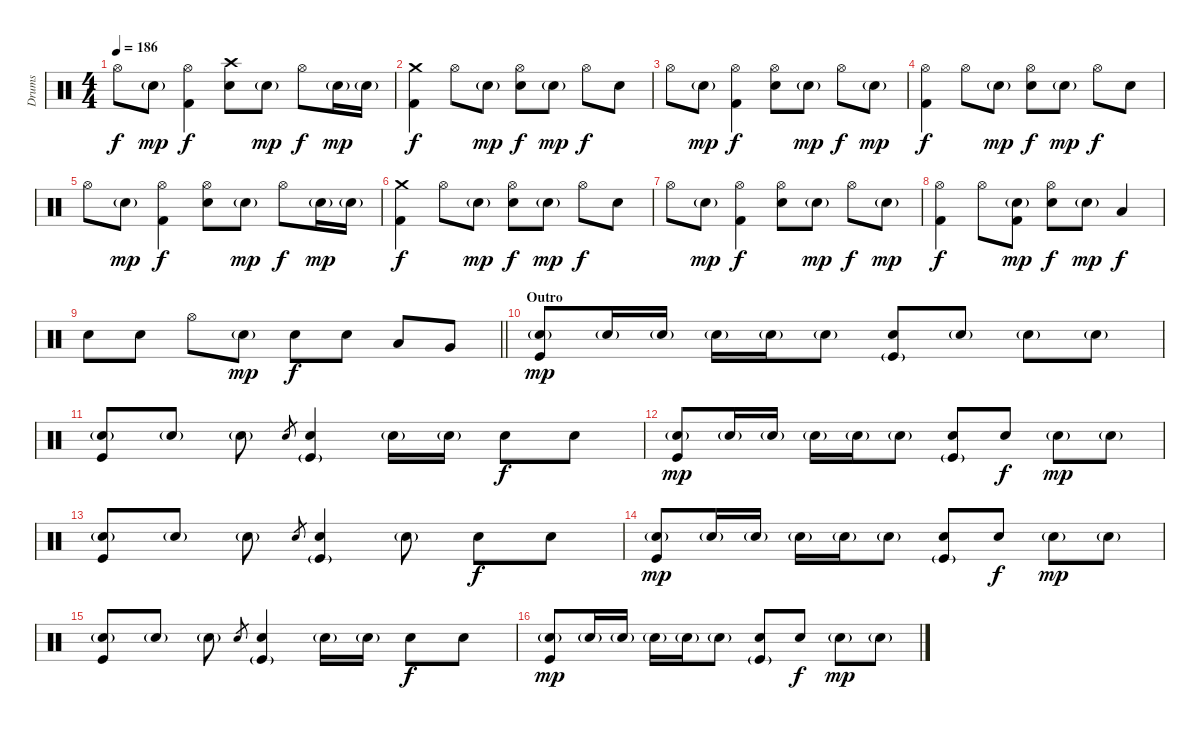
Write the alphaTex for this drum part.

\track ("Drums" "Drums") {instrument percussion}
\staff {score}
\articulation defaults
\ts (4 4)
\tempo 186
\clef neutral
\ks c "Hi-Hat (open)".8{dy f} "Electric Snare (hit)"{g}.8{dy mp}
("Hi-Hat (open)" "Kick (hit) 2").4{dy f} ("Crash high (hit)" "Electric Snare (hit)").8 "Electric Snare (hit)"{g}.8{dy mp} "Hi-Hat (open)".8{dy f} "Electric Snare (hit)"{g}.16{dy mp} "Electric Snare (hit)"{g}.16 |
("Crash medium (hit)" "Kick (hit) 2").4{dy f} "Hi-Hat (open)".8 "Electric Snare (hit)"{g}.8{dy mp} ("Hi-Hat (open)" "Electric Snare (hit)").8{dy f} "Electric Snare (hit)"{g}.8{dy mp} "Hi-Hat (open)".8{dy f} "Electric Snare (hit)".8 |
"Hi-Hat (open)".8 "Electric Snare (hit)"{g}.8{dy mp} ("Hi-Hat (open)" "Kick (hit) 2").4{dy f} ("Hi-Hat (open)" "Electric Snare (hit)").8 "Electric Snare (hit)"{g}.8{dy mp} "Hi-Hat (open)".8{dy f} "Electric Snare (hit)"{g}.8{dy mp} |
("Hi-Hat (open)" "Kick (hit) 2").4{dy f} "Hi-Hat (open)".8 "Electric Snare (hit)"{g}.8{dy mp} ("Hi-Hat (open)" "Electric Snare (hit)").8{dy f} "Electric Snare (hit)"{g}.8{dy mp} "Hi-Hat (open)".8{dy f} "Electric Snare (hit)".8 |
"Hi-Hat (open)".8 "Electric Snare (hit)"{g}.8{dy mp} ("Hi-Hat (open)" "Kick (hit) 2").4{dy f} ("Hi-Hat (open)" "Electric Snare (hit)").8 "Electric Snare (hit)"{g}.8{dy mp} "Hi-Hat (open)".8{dy f} "Electric Snare (hit)"{g}.16{dy mp} "Electric Snare (hit)"{g}.16 |
("Crash medium (hit)" "Kick (hit) 2").4{dy f} "Hi-Hat (open)".8 "Electric Snare (hit)"{g}.8{dy mp} ("Hi-Hat (open)" "Electric Snare (hit)").8{dy f} "Electric Snare (hit)"{g}.8{dy mp} "Hi-Hat (open)".8{dy f} "Electric Snare (hit)".8 |
"Hi-Hat (open)".8 "Electric Snare (hit)"{g}.8{dy mp} ("Hi-Hat (open)" "Kick (hit) 2").4{dy f} ("Hi-Hat (open)" "Electric Snare (hit)").8 "Electric Snare (hit)"{g}.8{dy mp} "Hi-Hat (open)".8{dy f} "Electric Snare (hit)"{g}.8{dy mp} |
("Hi-Hat (open)" "Kick (hit) 2").4{dy f} "Hi-Hat (open)".8 ("Electric Snare (hit)"{g} "Kick (hit) 2").8{dy mp} ("Hi-Hat (open)" "Electric Snare (hit)").8{dy f} "Electric Snare (hit)"{g}.8{dy mp} "Low Tom (hit)".4{dy f} |
\barLineRight lightlight "Electric Snare (hit)".8 "Electric Snare (hit)".8 "Hi-Hat (open)".8 "Electric Snare (hit)"{g}.8{dy mp} "Electric Snare (hit)".8{dy f} "Electric Snare (hit)".8 "Low Tom (hit)".8 "Very Low Tom (hit)".8
|
\section ("" "Outro")
("Electric Snare (hit)"{g} "Kick (hit)").8{dy mp} "Electric Snare (hit)"{g}.16 "Electric Snare (hit)"{g}.16 "Electric Snare (hit)"{g}.16 "Electric Snare (hit)"{g}.16 "Electric Snare (hit)"{g}.8 ("Electric Snare (hit)" "Kick (hit)"{g}).8 "Electric Snare (hit)"{g}.8 "Electric Snare (hit)"{g}.8 "Electric Snare (hit)"{g}.8 |
("Electric Snare (hit)"{g} "Kick (hit)").8 "Electric Snare (hit)"{g}.8 "Electric Snare (hit)"{g}.8 "Electric Snare (hit)".8{gr} ("Electric Snare (hit)" "Kick (hit)"{g}).4 "Electric Snare (hit)"{g}.16 "Electric Snare (hit)"{g}.16 "Electric Snare (hit)".8{dy f} "Electric Snare (hit)".8 |
("Electric Snare (hit)"{g} "Kick (hit)").8{dy mp} "Electric Snare (hit)"{g}.16 "Electric Snare (hit)"{g}.16 "Electric Snare (hit)"{g}.16 "Electric Snare (hit)"{g}.16 "Electric Snare (hit)"{g}.8 ("Electric Snare (hit)" "Kick (hit)"{g}).8 "Electric Snare (hit)".8{dy f} "Electric Snare (hit)"{g}.8{dy mp} "Electric Snare (hit)"{g}.8 |
("Electric Snare (hit)"{g} "Kick (hit)").8 "Electric Snare (hit)"{g}.8 "Electric Snare (hit)"{g}.8 "Electric Snare (hit)".8{gr} ("Electric Snare (hit)" "Kick (hit)"{g}).4 "Electric Snare (hit)"{g}.8 "Electric Snare (hit)".8{dy f} "Electric Snare (hit)".8 |
("Electric Snare (hit)"{g} "Kick (hit)").8{dy mp} "Electric Snare (hit)"{g}.16 "Electric Snare (hit)"{g}.16 "Electric Snare (hit)"{g}.16 "Electric Snare (hit)"{g}.16 "Electric Snare (hit)"{g}.8 ("Electric Snare (hit)" "Kick (hit)"{g}).8 "Electric Snare (hit)".8{dy f} "Electric Snare (hit)"{g}.8{dy mp} "Electric Snare (hit)"{g}.8 |
("Electric Snare (hit)"{g} "Kick (hit)").8 "Electric Snare (hit)"{g}.8 "Electric Snare (hit)"{g}.8 "Electric Snare (hit)".8{gr} ("Electric Snare (hit)" "Kick (hit)"{g}).4 "Electric Snare (hit)"{g}.16 "Electric Snare (hit)"{g}.16 "Electric Snare (hit)".8{dy f} "Electric Snare (hit)".8 |
("Electric Snare (hit)"{g} "Kick (hit)").8{dy mp} "Electric Snare (hit)"{g}.16 "Electric Snare (hit)"{g}.16 "Electric Snare (hit)"{g}.16 "Electric Snare (hit)"{g}.16 "Electric Snare (hit)"{g}.8 ("Electric Snare (hit)" "Kick (hit)"{g}).8 "Electric Snare (hit)".8{dy f} "Electric Snare (hit)"{g}.8{dy mp} "Electric Snare (hit)"{g}.8
